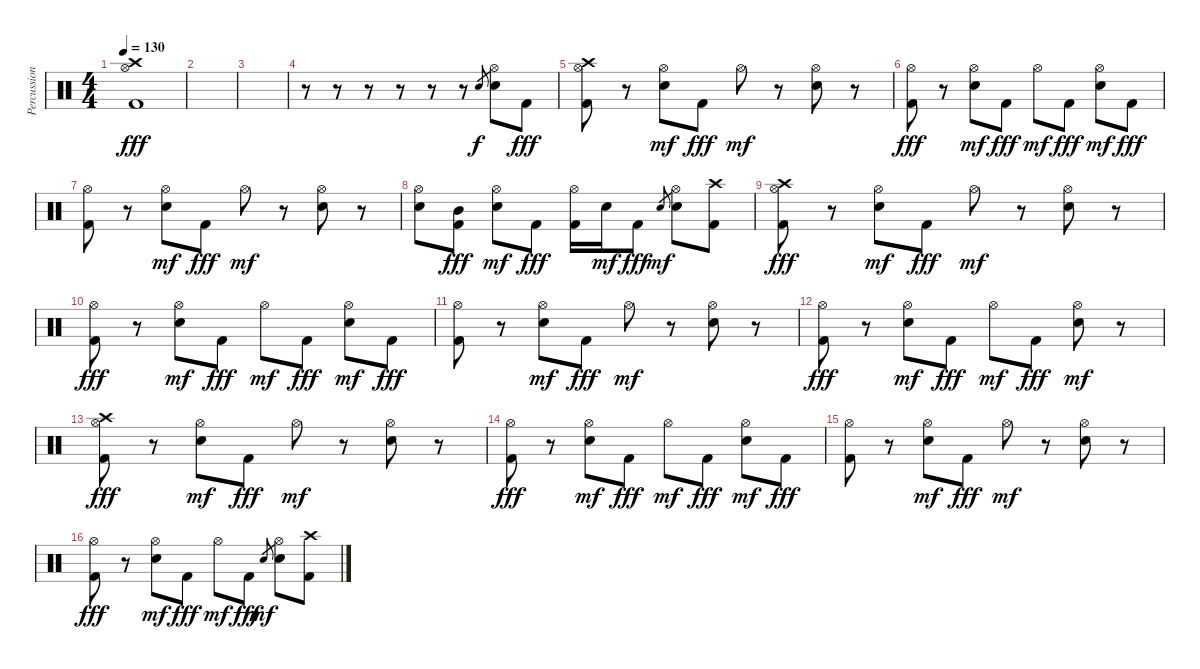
\track ("Percussion" "Percussion") {instrument percussion}
\staff {score}
\articulation defaults
\ts (4 4)
\tempo 130
\clef neutral
\ks c
("Hi-Hat (open)" "Kick (hit) 2" "Crash high (hit)").1{dy fff} |
|
|
r.8 r.8 r.8 r.8 r.8 r.8 "Electric Snare (hit)".8{gr dy f} ("Electric Snare (hit)" "Hi-Hat (open)").8 "Kick (hit) 2".8{dy fff} |
("Hi-Hat (open)" "Kick (hit) 2" "Crash high (hit)").8 r.8 ("Hi-Hat (open)" "Electric Snare (hit)").8{dy mf} "Kick (hit) 2".8{dy fff} "Hi-Hat (open)".8{dy mf} r.8 ("Hi-Hat (open)" "Electric Snare (hit)").8 r.8 |
("Hi-Hat (open)" "Kick (hit) 2").8{dy fff} r.8 ("Hi-Hat (open)" "Electric Snare (hit)").8{dy mf} "Kick (hit) 2".8{dy fff} "Hi-Hat (open)".8{dy mf} "Kick (hit) 2".8{dy fff} ("Hi-Hat (open)" "Electric Snare (hit)").8{dy mf} "Kick (hit) 2".8{dy fff} |
("Hi-Hat (open)" "Kick (hit) 2").8 r.8 ("Hi-Hat (open)" "Electric Snare (hit)").8{dy mf} "Kick (hit) 2".8{dy fff} "Hi-Hat (open)".8{dy mf} r.8 ("Hi-Hat (open)" "Electric Snare (hit)").8 r.8 |
("Hi-Hat (open)" "Electric Snare (hit)").8 ("Kick (hit) 2" "Mid Tom (hit)").8{dy fff} ("Hi-Hat (open)" "Electric Snare (hit)").8{dy mf} "Kick (hit) 2".8{dy fff} ("Hi-Hat (open)" "Kick (hit) 2").16 "Electric Snare (hit)".16{dy mf} "Kick (hit) 2".8{dy fff} "Electric Snare (hit)".8{gr dy mf} ("Hi-Hat (open)" "Electric Snare (hit)").8 ("Kick (hit) 2" "Crash high (hit)").8 |
("Hi-Hat (open)" "Kick (hit) 2" "Crash high (hit)").8{dy fff} r.8 ("Hi-Hat (open)" "Electric Snare (hit)").8{dy mf} "Kick (hit) 2".8{dy fff} "Hi-Hat (open)".8{dy mf} r.8 ("Hi-Hat (open)" "Electric Snare (hit)").8 r.8 |
("Hi-Hat (open)" "Kick (hit) 2").8{dy fff} r.8 ("Hi-Hat (open)" "Electric Snare (hit)").8{dy mf} "Kick (hit) 2".8{dy fff} "Hi-Hat (open)".8{dy mf} "Kick (hit) 2".8{dy fff} ("Hi-Hat (open)" "Electric Snare (hit)").8{dy mf} "Kick (hit) 2".8{dy fff} |
("Hi-Hat (open)" "Kick (hit) 2").8 r.8 ("Hi-Hat (open)" "Electric Snare (hit)").8{dy mf} "Kick (hit) 2".8{dy fff} "Hi-Hat (open)".8{dy mf} r.8 ("Hi-Hat (open)" "Electric Snare (hit)").8 r.8 |
("Hi-Hat (open)" "Kick (hit) 2").8{dy fff} r.8 ("Hi-Hat (open)" "Electric Snare (hit)").8{dy mf} "Kick (hit) 2".8{dy fff} "Hi-Hat (open)".8{dy mf} "Kick (hit) 2".8{dy fff} ("Hi-Hat (open)" "Electric Snare (hit)").8{dy mf} r.8 |
("Hi-Hat (open)" "Kick (hit) 2" "Crash high (hit)").8{dy fff} r.8 ("Hi-Hat (open)" "Electric Snare (hit)").8{dy mf} "Kick (hit) 2".8{dy fff} "Hi-Hat (open)".8{dy mf} r.8 ("Hi-Hat (open)" "Electric Snare (hit)").8 r.8 |
("Hi-Hat (open)" "Kick (hit) 2").8{dy fff} r.8 ("Hi-Hat (open)" "Electric Snare (hit)").8{dy mf} "Kick (hit) 2".8{dy fff} "Hi-Hat (open)".8{dy mf} "Kick (hit) 2".8{dy fff} ("Hi-Hat (open)" "Electric Snare (hit)").8{dy mf} "Kick (hit) 2".8{dy fff} |
("Hi-Hat (open)" "Kick (hit) 2").8 r.8 ("Hi-Hat (open)" "Electric Snare (hit)").8{dy mf} "Kick (hit) 2".8{dy fff} "Hi-Hat (open)".8{dy mf} r.8 ("Hi-Hat (open)" "Electric Snare (hit)").8 r.8 |
("Hi-Hat (open)" "Kick (hit) 2").8{dy fff} r.8 ("Hi-Hat (open)" "Electric Snare (hit)").8{dy mf} "Kick (hit) 2".8{dy fff} "Hi-Hat (open)".8{dy mf} "Kick (hit) 2".8{dy fff} "Electric Snare (hit)".8{gr dy mf} ("Hi-Hat (open)" "Electric Snare (hit)").8 ("Kick (hit) 2" "Crash high (hit)").8
